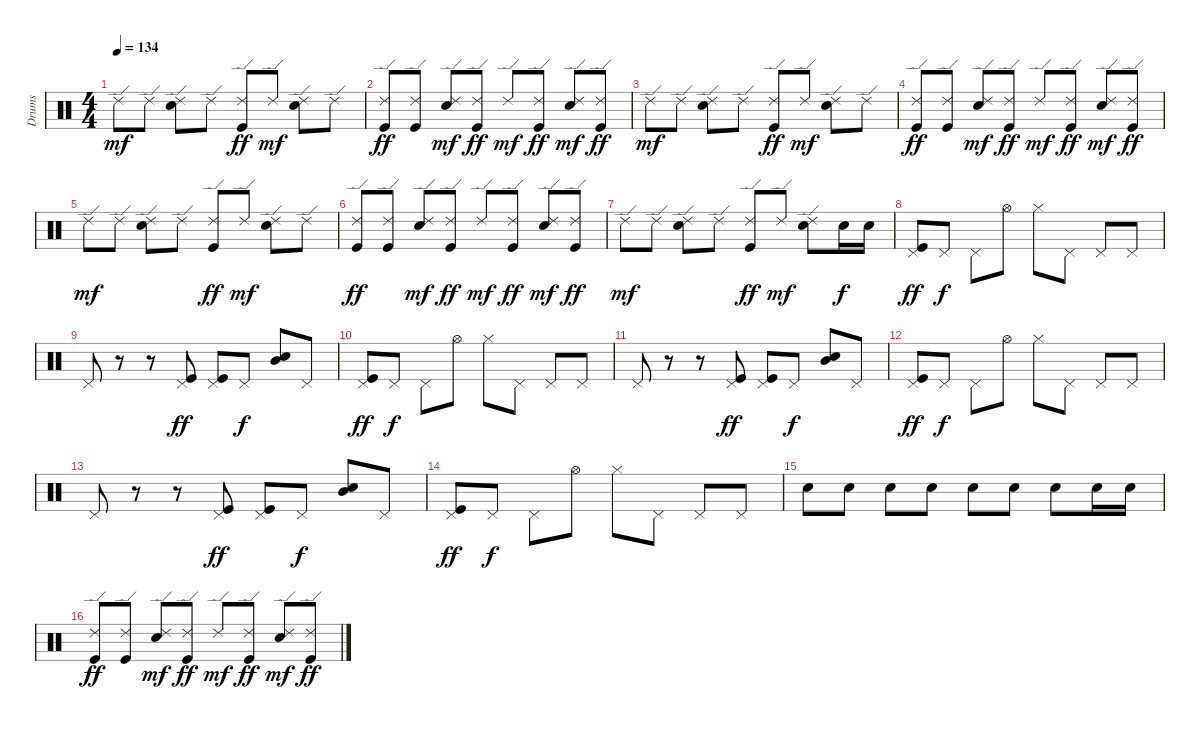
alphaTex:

\track ("Drums" "Drums") {instrument percussion}
\staff {score}
\articulation defaults
\ts (4 4)
\tempo 134
\clef neutral
\ks c "Ride (edge) 2".8{dy mf} "Ride (edge) 2".8
("Ride (edge) 2" "Snare (hit) 2").8 "Ride (edge) 2".8 ("Ride (edge) 2" "Kick (hit)").8{dy ff} "Ride (edge) 2".8{dy mf} ("Ride (edge) 2" "Snare (hit) 2").8 "Ride (edge) 2".8 |
("Ride (edge) 2" "Kick (hit)").8{dy ff} ("Ride (edge) 2" "Kick (hit)").8 ("Ride (edge) 2" "Snare (hit) 2").8{dy mf} ("Ride (edge) 2" "Kick (hit)").8{dy ff} "Ride (edge) 2".8{dy mf} ("Ride (edge) 2" "Kick (hit)").8{dy ff} ("Ride (edge) 2" "Snare (hit) 2").8{dy mf} ("Ride (edge) 2" "Kick (hit)").8{dy ff} |
"Ride (edge) 2".8{dy mf} "Ride (edge) 2".8 ("Ride (edge) 2" "Snare (hit) 2").8 "Ride (edge) 2".8 ("Ride (edge) 2" "Kick (hit)").8{dy ff} "Ride (edge) 2".8{dy mf} ("Ride (edge) 2" "Snare (hit) 2").8 "Ride (edge) 2".8 |
("Ride (edge) 2" "Kick (hit)").8{dy ff} ("Ride (edge) 2" "Kick (hit)").8 ("Ride (edge) 2" "Snare (hit) 2").8{dy mf} ("Ride (edge) 2" "Kick (hit)").8{dy ff} "Ride (edge) 2".8{dy mf} ("Ride (edge) 2" "Kick (hit)").8{dy ff} ("Ride (edge) 2" "Snare (hit) 2").8{dy mf} ("Ride (edge) 2" "Kick (hit)").8{dy ff} |
"Ride (edge) 2".8{dy mf} "Ride (edge) 2".8 ("Ride (edge) 2" "Snare (hit) 2").8 "Ride (edge) 2".8 ("Ride (edge) 2" "Kick (hit)").8{dy ff} "Ride (edge) 2".8{dy mf} ("Ride (edge) 2" "Snare (hit) 2").8 "Ride (edge) 2".8 |
("Ride (edge) 2" "Kick (hit)").8{dy ff} ("Ride (edge) 2" "Kick (hit)").8 ("Ride (edge) 2" "Snare (hit) 2").8{dy mf} ("Ride (edge) 2" "Kick (hit)").8{dy ff} "Ride (edge) 2".8{dy mf} ("Ride (edge) 2" "Kick (hit)").8{dy ff} ("Ride (edge) 2" "Snare (hit) 2").8{dy mf} ("Ride (edge) 2" "Kick (hit)").8{dy ff} |
"Ride (edge) 2".8{dy mf} "Ride (edge) 2".8 ("Ride (edge) 2" "Snare (hit) 2").8 "Ride (edge) 2".8 ("Ride (edge) 2" "Kick (hit)").8{dy ff} "Ride (edge) 2".8{dy mf} ("Ride (edge) 2" "Snare (hit) 2").8 "Snare (hit) 2".16{dy f} "Snare (hit) 2".16 |
("Pedal Hi-Hat (hit)" "Kick (hit)").8{dy ff} "Pedal Hi-Hat (hit)".8{dy f} "Pedal Hi-Hat (hit)".8 "Hi-Hat (open)".8 "Hi-Hat (closed)".8 "Pedal Hi-Hat (hit)".8 "Pedal Hi-Hat (hit)".8 "Pedal Hi-Hat (hit)".8 |
"Pedal Hi-Hat (hit)".8 r.8 r.8 ("Pedal Hi-Hat (hit)" "Kick (hit)").8{dy ff} ("Pedal Hi-Hat (hit)" "Kick (hit)").8 "Pedal Hi-Hat (hit)".8{dy f} ("Mid Tom (hit)" "Snare (hit) 2").8 "Pedal Hi-Hat (hit)".8 |
("Pedal Hi-Hat (hit)" "Kick (hit)").8{dy ff} "Pedal Hi-Hat (hit)".8{dy f} "Pedal Hi-Hat (hit)".8 "Hi-Hat (open)".8 "Hi-Hat (closed)".8 "Pedal Hi-Hat (hit)".8 "Pedal Hi-Hat (hit)".8 "Pedal Hi-Hat (hit)".8 |
"Pedal Hi-Hat (hit)".8 r.8 r.8 ("Pedal Hi-Hat (hit)" "Kick (hit)").8{dy ff} ("Pedal Hi-Hat (hit)" "Kick (hit)").8 "Pedal Hi-Hat (hit)".8{dy f} ("Mid Tom (hit)" "Snare (hit) 2").8 "Pedal Hi-Hat (hit)".8 |
("Pedal Hi-Hat (hit)" "Kick (hit)").8{dy ff} "Pedal Hi-Hat (hit)".8{dy f} "Pedal Hi-Hat (hit)".8 "Hi-Hat (open)".8 "Hi-Hat (closed)".8 "Pedal Hi-Hat (hit)".8 "Pedal Hi-Hat (hit)".8 "Pedal Hi-Hat (hit)".8 |
"Pedal Hi-Hat (hit)".8 r.8 r.8 ("Pedal Hi-Hat (hit)" "Kick (hit)").8{dy ff} ("Pedal Hi-Hat (hit)" "Kick (hit)").8 "Pedal Hi-Hat (hit)".8{dy f} ("Mid Tom (hit)" "Snare (hit) 2").8 "Pedal Hi-Hat (hit)".8 |
("Pedal Hi-Hat (hit)" "Kick (hit)").8{dy ff} "Pedal Hi-Hat (hit)".8{dy f} "Pedal Hi-Hat (hit)".8 "Hi-Hat (open)".8 "Hi-Hat (closed)".8 "Pedal Hi-Hat (hit)".8 "Pedal Hi-Hat (hit)".8 "Pedal Hi-Hat (hit)".8 |
"Snare (hit) 2".8 "Snare (hit) 2".8 "Snare (hit) 2".8 "Snare (hit) 2".8 "Snare (hit) 2".8 "Snare (hit) 2".8 "Snare (hit) 2".8 "Snare (hit) 2".16 "Snare (hit) 2".16 |
("Ride (edge) 2" "Kick (hit)").8{dy ff} ("Ride (edge) 2" "Kick (hit)").8 ("Ride (edge) 2" "Snare (hit) 2").8{dy mf} ("Ride (edge) 2" "Kick (hit)").8{dy ff} "Ride (edge) 2".8{dy mf} ("Ride (edge) 2" "Kick (hit)").8{dy ff} ("Ride (edge) 2" "Snare (hit) 2").8{dy mf} ("Ride (edge) 2" "Kick (hit)").8{dy ff}
